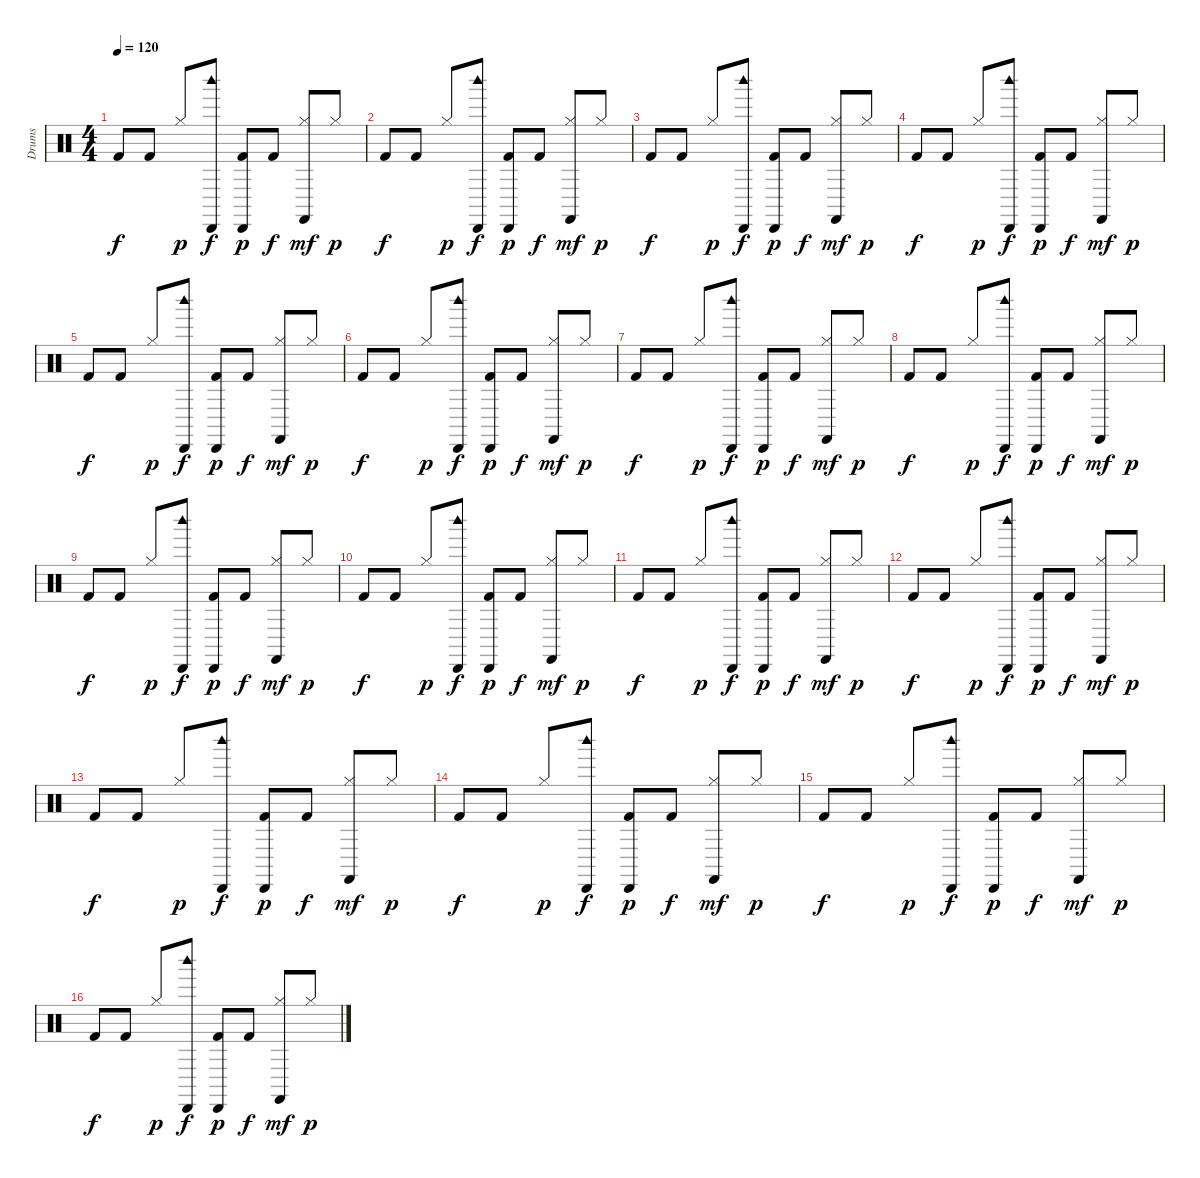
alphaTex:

\track ("Drums" "Drums") {instrument percussion}
\staff {score}
\articulation defaults
\ts (4 4)
\tempo 120
\clef neutral
\ks c "Kick (hit) 2".8{dy f} "Kick (hit) 2".8 "Hi-Hat (closed)".8{dy p}
("Woodblock high (hit)" "Cabasa (hit)").8{dy f} ("Cabasa (hit)" "Kick (hit) 2").8{dy p} "Kick (hit) 2".8{dy f} ("Castanets (hit)" "Hi-Hat (closed)").8{dy mf} "Hi-Hat (closed)".8{dy p} |
"Kick (hit) 2".8{dy f} "Kick (hit) 2".8 "Hi-Hat (closed)".8{dy p} ("Woodblock high (hit)" "Cabasa (hit)").8{dy f} ("Cabasa (hit)" "Kick (hit) 2").8{dy p} "Kick (hit) 2".8{dy f} ("Castanets (hit)" "Hi-Hat (closed)").8{dy mf} "Hi-Hat (closed)".8{dy p} |
"Kick (hit) 2".8{dy f} "Kick (hit) 2".8 "Hi-Hat (closed)".8{dy p} ("Woodblock high (hit)" "Cabasa (hit)").8{dy f} ("Cabasa (hit)" "Kick (hit) 2").8{dy p} "Kick (hit) 2".8{dy f} ("Castanets (hit)" "Hi-Hat (closed)").8{dy mf} "Hi-Hat (closed)".8{dy p} |
"Kick (hit) 2".8{dy f} "Kick (hit) 2".8 "Hi-Hat (closed)".8{dy p} ("Woodblock high (hit)" "Cabasa (hit)").8{dy f} ("Cabasa (hit)" "Kick (hit) 2").8{dy p} "Kick (hit) 2".8{dy f} ("Castanets (hit)" "Hi-Hat (closed)").8{dy mf} "Hi-Hat (closed)".8{dy p} |
"Kick (hit) 2".8{dy f} "Kick (hit) 2".8 "Hi-Hat (closed)".8{dy p} ("Woodblock high (hit)" "Cabasa (hit)").8{dy f} ("Cabasa (hit)" "Kick (hit) 2").8{dy p} "Kick (hit) 2".8{dy f} ("Castanets (hit)" "Hi-Hat (closed)").8{dy mf} "Hi-Hat (closed)".8{dy p} |
"Kick (hit) 2".8{dy f} "Kick (hit) 2".8 "Hi-Hat (closed)".8{dy p} ("Woodblock high (hit)" "Cabasa (hit)").8{dy f} ("Cabasa (hit)" "Kick (hit) 2").8{dy p} "Kick (hit) 2".8{dy f} ("Castanets (hit)" "Hi-Hat (closed)").8{dy mf} "Hi-Hat (closed)".8{dy p} |
"Kick (hit) 2".8{dy f} "Kick (hit) 2".8 "Hi-Hat (closed)".8{dy p} ("Woodblock high (hit)" "Cabasa (hit)").8{dy f} ("Cabasa (hit)" "Kick (hit) 2").8{dy p} "Kick (hit) 2".8{dy f} ("Castanets (hit)" "Hi-Hat (closed)").8{dy mf} "Hi-Hat (closed)".8{dy p} |
"Kick (hit) 2".8{dy f} "Kick (hit) 2".8 "Hi-Hat (closed)".8{dy p} ("Woodblock high (hit)" "Cabasa (hit)").8{dy f} ("Cabasa (hit)" "Kick (hit) 2").8{dy p} "Kick (hit) 2".8{dy f} ("Castanets (hit)" "Hi-Hat (closed)").8{dy mf} "Hi-Hat (closed)".8{dy p} |
"Kick (hit) 2".8{dy f} "Kick (hit) 2".8 "Hi-Hat (closed)".8{dy p} ("Woodblock high (hit)" "Cabasa (hit)").8{dy f} ("Cabasa (hit)" "Kick (hit) 2").8{dy p} "Kick (hit) 2".8{dy f} ("Castanets (hit)" "Hi-Hat (closed)").8{dy mf} "Hi-Hat (closed)".8{dy p} |
"Kick (hit) 2".8{dy f} "Kick (hit) 2".8 "Hi-Hat (closed)".8{dy p} ("Woodblock high (hit)" "Cabasa (hit)").8{dy f} ("Cabasa (hit)" "Kick (hit) 2").8{dy p} "Kick (hit) 2".8{dy f} ("Castanets (hit)" "Hi-Hat (closed)").8{dy mf} "Hi-Hat (closed)".8{dy p} |
"Kick (hit) 2".8{dy f} "Kick (hit) 2".8 "Hi-Hat (closed)".8{dy p} ("Woodblock high (hit)" "Cabasa (hit)").8{dy f} ("Cabasa (hit)" "Kick (hit) 2").8{dy p} "Kick (hit) 2".8{dy f} ("Castanets (hit)" "Hi-Hat (closed)").8{dy mf} "Hi-Hat (closed)".8{dy p} |
"Kick (hit) 2".8{dy f} "Kick (hit) 2".8 "Hi-Hat (closed)".8{dy p} ("Woodblock high (hit)" "Cabasa (hit)").8{dy f} ("Cabasa (hit)" "Kick (hit) 2").8{dy p} "Kick (hit) 2".8{dy f} ("Castanets (hit)" "Hi-Hat (closed)").8{dy mf} "Hi-Hat (closed)".8{dy p} |
"Kick (hit) 2".8{dy f} "Kick (hit) 2".8 "Hi-Hat (closed)".8{dy p} ("Woodblock high (hit)" "Cabasa (hit)").8{dy f} ("Cabasa (hit)" "Kick (hit) 2").8{dy p} "Kick (hit) 2".8{dy f} ("Castanets (hit)" "Hi-Hat (closed)").8{dy mf} "Hi-Hat (closed)".8{dy p} |
"Kick (hit) 2".8{dy f} "Kick (hit) 2".8 "Hi-Hat (closed)".8{dy p} ("Woodblock high (hit)" "Cabasa (hit)").8{dy f} ("Cabasa (hit)" "Kick (hit) 2").8{dy p} "Kick (hit) 2".8{dy f} ("Castanets (hit)" "Hi-Hat (closed)").8{dy mf} "Hi-Hat (closed)".8{dy p} |
"Kick (hit) 2".8{dy f} "Kick (hit) 2".8 "Hi-Hat (closed)".8{dy p} ("Woodblock high (hit)" "Cabasa (hit)").8{dy f} ("Cabasa (hit)" "Kick (hit) 2").8{dy p} "Kick (hit) 2".8{dy f} ("Castanets (hit)" "Hi-Hat (closed)").8{dy mf} "Hi-Hat (closed)".8{dy p} |
"Kick (hit) 2".8{dy f} "Kick (hit) 2".8 "Hi-Hat (closed)".8{dy p} ("Woodblock high (hit)" "Cabasa (hit)").8{dy f} ("Cabasa (hit)" "Kick (hit) 2").8{dy p} "Kick (hit) 2".8{dy f} ("Castanets (hit)" "Hi-Hat (closed)").8{dy mf} "Hi-Hat (closed)".8{dy p}
